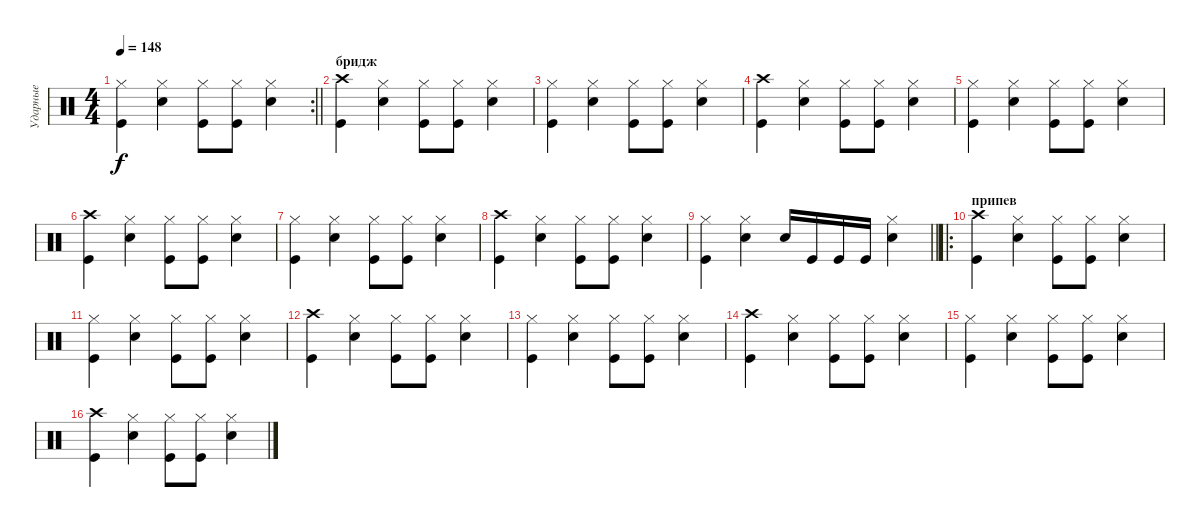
\track ("Ударные" "Ударные") {instrument percussion}
\staff {score}
\articulation defaults
\rc 2
\ts (4 4)
\tempo 148
\clef neutral
\barLineRight lightlight
\ks c
("Kick (hit)" "Hi-Hat (closed)").4{dy f} ("Snare (hit) 2" "Hi-Hat (closed)").4 ("Kick (hit)" "Hi-Hat (closed)").8 ("Kick (hit)" "Hi-Hat (closed)").8 ("Snare (hit) 2" "Hi-Hat (closed)").4 |
\section ("" "бридж")
("Kick (hit)" "Crash high (hit)").4 ("Snare (hit) 2" "Hi-Hat (closed)").4 ("Kick (hit)" "Hi-Hat (closed)").8 ("Kick (hit)" "Hi-Hat (closed)").8 ("Snare (hit) 2" "Hi-Hat (closed)").4 |
("Kick (hit)" "Hi-Hat (closed)").4 ("Snare (hit) 2" "Hi-Hat (closed)").4 ("Kick (hit)" "Hi-Hat (closed)").8 ("Kick (hit)" "Hi-Hat (closed)").8 ("Snare (hit) 2" "Hi-Hat (closed)").4 |
("Kick (hit)" "Crash high (hit)").4 ("Snare (hit) 2" "Hi-Hat (closed)").4 ("Kick (hit)" "Hi-Hat (closed)").8 ("Kick (hit)" "Hi-Hat (closed)").8 ("Snare (hit) 2" "Hi-Hat (closed)").4 |
("Kick (hit)" "Hi-Hat (closed)").4 ("Snare (hit) 2" "Hi-Hat (closed)").4 ("Kick (hit)" "Hi-Hat (closed)").8 ("Kick (hit)" "Hi-Hat (closed)").8 ("Snare (hit) 2" "Hi-Hat (closed)").4 |
("Kick (hit)" "Crash high (hit)").4 ("Snare (hit) 2" "Hi-Hat (closed)").4 ("Kick (hit)" "Hi-Hat (closed)").8 ("Kick (hit)" "Hi-Hat (closed)").8 ("Snare (hit) 2" "Hi-Hat (closed)").4 |
("Kick (hit)" "Hi-Hat (closed)").4 ("Snare (hit) 2" "Hi-Hat (closed)").4 ("Kick (hit)" "Hi-Hat (closed)").8 ("Kick (hit)" "Hi-Hat (closed)").8 ("Snare (hit) 2" "Hi-Hat (closed)").4 |
("Kick (hit)" "Crash high (hit)").4 ("Snare (hit) 2" "Hi-Hat (closed)").4 ("Kick (hit)" "Hi-Hat (closed)").8 ("Kick (hit)" "Hi-Hat (closed)").8 ("Snare (hit) 2" "Hi-Hat (closed)").4 |
\barLineRight lightlight
("Kick (hit)" "Hi-Hat (closed)").4 ("Snare (hit) 2" "Hi-Hat (closed)").4 "Snare (hit) 2".16 "Kick (hit)".16 "Kick (hit)".16 "Kick (hit)".16 ("Snare (hit) 2" "Hi-Hat (closed)").4 |
\ro
\section ("" "припев")
("Kick (hit)" "Crash high (hit)").4 ("Snare (hit) 2" "Hi-Hat (closed)").4 ("Kick (hit)" "Hi-Hat (closed)").8 ("Kick (hit)" "Hi-Hat (closed)").8 ("Snare (hit) 2" "Hi-Hat (closed)").4 |
("Kick (hit)" "Hi-Hat (closed)").4 ("Snare (hit) 2" "Hi-Hat (closed)").4 ("Kick (hit)" "Hi-Hat (closed)").8 ("Kick (hit)" "Hi-Hat (closed)").8 ("Snare (hit) 2" "Hi-Hat (closed)").4 |
("Kick (hit)" "Crash high (hit)").4 ("Snare (hit) 2" "Hi-Hat (closed)").4 ("Kick (hit)" "Hi-Hat (closed)").8 ("Kick (hit)" "Hi-Hat (closed)").8 ("Snare (hit) 2" "Hi-Hat (closed)").4 |
("Kick (hit)" "Hi-Hat (closed)").4 ("Snare (hit) 2" "Hi-Hat (closed)").4 ("Kick (hit)" "Hi-Hat (closed)").8 ("Kick (hit)" "Hi-Hat (closed)").8 ("Snare (hit) 2" "Hi-Hat (closed)").4 |
("Kick (hit)" "Crash high (hit)").4 ("Snare (hit) 2" "Hi-Hat (closed)").4 ("Kick (hit)" "Hi-Hat (closed)").8 ("Kick (hit)" "Hi-Hat (closed)").8 ("Snare (hit) 2" "Hi-Hat (closed)").4 |
("Kick (hit)" "Hi-Hat (closed)").4 ("Snare (hit) 2" "Hi-Hat (closed)").4 ("Kick (hit)" "Hi-Hat (closed)").8 ("Kick (hit)" "Hi-Hat (closed)").8 ("Snare (hit) 2" "Hi-Hat (closed)").4 |
("Kick (hit)" "Crash high (hit)").4 ("Snare (hit) 2" "Hi-Hat (closed)").4 ("Kick (hit)" "Hi-Hat (closed)").8 ("Kick (hit)" "Hi-Hat (closed)").8 ("Snare (hit) 2" "Hi-Hat (closed)").4
